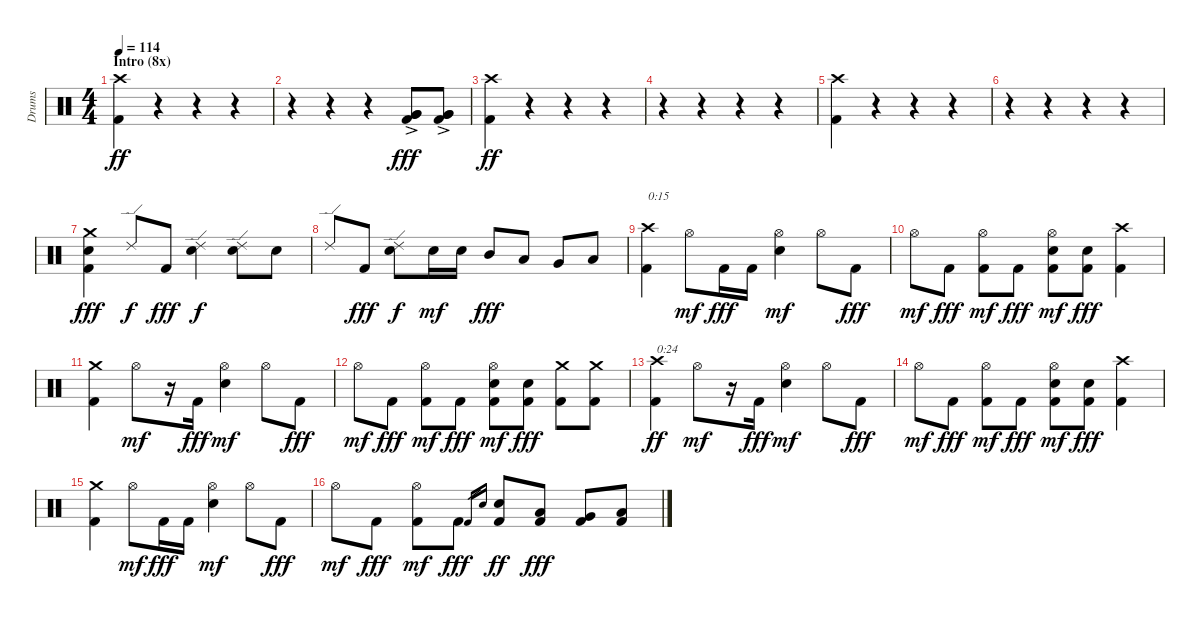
\track ("Drums" "Drums") {instrument percussion}
\staff {score}
\articulation defaults
\ts (4 4)
\section ("" "Intro (8x)")
\tempo 114
\clef neutral
\ks c
("Kick (hit) 2" "Crash high (hit)").4{dy ff} r.4 r.4 r.4 |
r.4 r.4 r.4 ("Kick (hit) 2" "Very Low Tom (hit)"{ac} "Very Low Tom (hit)"{ac}).8{dy fff} ("Kick (hit) 2" "Very Low Tom (hit)"{ac} "Very Low Tom (hit)"{ac}).8 |
("Kick (hit) 2" "Crash high (hit)").4{dy ff} r.4 r.4 r.4 |
r.4 r.4 r.4 r.4 |
("Kick (hit) 2" "Crash high (hit)").4 r.4 r.4 r.4 |
r.4 r.4 r.4 r.4 |
("Kick (hit) 2" "Electric Snare (hit)" "Crash medium (hit)").4{dy fff} "Ride (edge) 2".8{dy f} "Kick (hit) 2".8{dy fff} ("Electric Snare (hit)" "Ride (edge) 2").4{dy f} ("Electric Snare (hit)" "Ride (edge) 2").8 "Electric Snare (hit)".8 |
"Ride (edge) 2".8 "Kick (hit) 2".8{dy fff} ("Electric Snare (hit)" "Ride (edge) 2").8{dy f} "Electric Snare (hit)".16{dy mf} "Electric Snare (hit)".16 "Mid Tom (hit)".8{dy fff} "Low Tom (hit)".8 "Very Low Tom (hit)".8 "Low Floor Tom (hit)".8 |
("Kick (hit) 2" "Crash high (hit)").4{txt "0:15"} "Hi-Hat (open)".8{dy mf} "Kick (hit) 2".16{dy fff} "Kick (hit) 2".16 ("Electric Snare (hit)" "Hi-Hat (open)").4{dy mf} "Hi-Hat (open)".8 "Kick (hit) 2".8{dy fff} |
"Hi-Hat (open)".8{dy mf} "Kick (hit) 2".8{dy fff} ("Kick (hit) 2" "Hi-Hat (open)").8{dy mf} "Kick (hit) 2".8{dy fff} ("Kick (hit) 2" "Electric Snare (hit)" "Hi-Hat (open)").8{dy mf} ("Kick (hit) 2" "Electric Snare (hit)").8{dy fff} ("Kick (hit) 2" "Crash high (hit)").4 |
("Kick (hit) 2" "Crash medium (hit)").4 "Hi-Hat (open)".8{dy mf} r.16 "Kick (hit) 2".16{dy fff} ("Electric Snare (hit)" "Hi-Hat (open)").4{dy mf} "Hi-Hat (open)".8 "Kick (hit) 2".8{dy fff} |
"Hi-Hat (open)".8{dy mf} "Kick (hit) 2".8{dy fff} ("Kick (hit) 2" "Hi-Hat (open)").8{dy mf} "Kick (hit) 2".8{dy fff} ("Kick (hit) 2" "Electric Snare (hit)" "Hi-Hat (open)").8{dy mf} ("Kick (hit) 2" "Electric Snare (hit)").8{dy fff} ("Kick (hit) 2" "Crash medium (hit)").8 ("Kick (hit) 2" "Crash medium (hit)").8 |
("Kick (hit) 2" "Crash high (hit)").4{txt "0:24" dy ff} "Hi-Hat (open)".8{dy mf} r.16 "Kick (hit) 2".16{dy fff} ("Electric Snare (hit)" "Hi-Hat (open)").4{dy mf} "Hi-Hat (open)".8 "Kick (hit) 2".8{dy fff} |
"Hi-Hat (open)".8{dy mf} "Kick (hit) 2".8{dy fff} ("Kick (hit) 2" "Hi-Hat (open)").8{dy mf} "Kick (hit) 2".8{dy fff} ("Kick (hit) 2" "Electric Snare (hit)" "Hi-Hat (open)").8{dy mf} ("Kick (hit) 2" "Electric Snare (hit)").8{dy fff} ("Kick (hit) 2" "Crash high (hit)").4 |
("Kick (hit) 2" "Crash medium (hit)").4 "Hi-Hat (open)".8{dy mf} "Kick (hit) 2".16{dy fff} "Kick (hit) 2".16 ("Electric Snare (hit)" "Hi-Hat (open)").4{dy mf} "Hi-Hat (open)".8 "Kick (hit) 2".8{dy fff} |
"Hi-Hat (open)".8{dy mf} "Kick (hit) 2".8{dy fff} ("Kick (hit) 2" "Hi-Hat (open)").8{dy mf} "Kick (hit) 2".8{dy fff} "Kick (hit) 2".16{gr} "Electric Snare (hit)".16{gr} ("Kick (hit) 2" "Electric Snare (hit)").8{dy ff} ("Kick (hit) 2" "Low Tom (hit)").8{dy fff} ("Kick (hit) 2" "Very Low Tom (hit)").8 ("Kick (hit) 2" "Low Floor Tom (hit)").8
